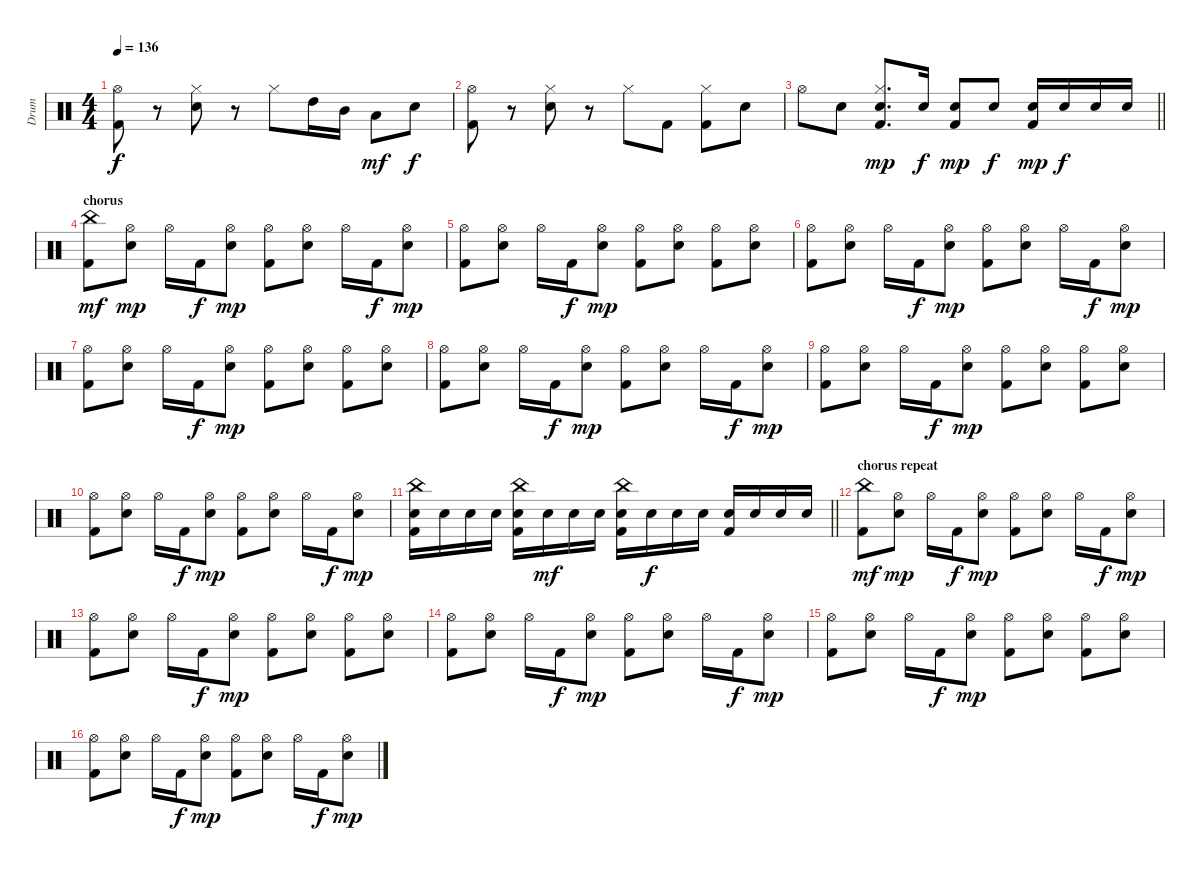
\track ("Drum" "Drum") {instrument percussion}
\staff {score}
\articulation defaults
\ts (4 4)
\tempo 136
\clef neutral
\ks c
("Kick (hit) 2" "Hi-Hat (open)").8{dy f} r.8 ("Hi-Hat (closed)" "Electric Snare (hit)").8 r.8 "Hi-Hat (closed)".8 "High Tom (hit)".16 "Mid Tom (hit)".16 "Low Tom (hit)".8{dy mf} "Electric Snare (hit)".8{dy f} |
("Kick (hit) 2" "Hi-Hat (open)").8 r.8 ("Hi-Hat (closed)" "Electric Snare (hit)").8 r.8 "Hi-Hat (closed)".8 "Kick (hit) 2".8 ("Kick (hit) 2" "Hi-Hat (closed)").8 "Electric Snare (hit)".8 |
\barLineRight lightlight "Hi-Hat (open)".8 "Electric Snare (hit)".8
("Electric Snare (hit)" "Hi-Hat (closed)" "Kick (hit) 2").8{d dy mp} "Electric Snare (hit)".16{dy f} ("Electric Snare (hit)" "Kick (hit) 2").8{dy mp} "Electric Snare (hit)".8{dy f} ("Electric Snare (hit)" "Kick (hit) 2").16{dy mp} "Electric Snare (hit)".16{dy f} "Electric Snare (hit)".16 "Electric Snare (hit)".16 |
\section ("" "chorus")
("Kick (hit) 2" "China (hit)").8{dy mf} ("Electric Snare (hit)" "Hi-Hat (open)").8{dy mp} "Hi-Hat (open)".16 "Kick (hit) 2".16{dy f} ("Electric Snare (hit)" "Hi-Hat (open)").8{dy mp} ("Kick (hit) 2" "Hi-Hat (open)").8 ("Electric Snare (hit)" "Hi-Hat (open)").8 "Hi-Hat (open)".16 "Kick (hit) 2".16{dy f} ("Electric Snare (hit)" "Hi-Hat (open)").8{dy mp} |
("Kick (hit) 2" "Hi-Hat (open)").8 ("Electric Snare (hit)" "Hi-Hat (open)").8 "Hi-Hat (open)".16 "Kick (hit) 2".16{dy f} ("Electric Snare (hit)" "Hi-Hat (open)").8{dy mp} ("Kick (hit) 2" "Hi-Hat (open)").8 ("Electric Snare (hit)" "Hi-Hat (open)").8 ("Kick (hit) 2" "Hi-Hat (open)").8 ("Electric Snare (hit)" "Hi-Hat (open)").8 |
("Kick (hit) 2" "Hi-Hat (open)").8 ("Electric Snare (hit)" "Hi-Hat (open)").8 "Hi-Hat (open)".16 "Kick (hit) 2".16{dy f} ("Electric Snare (hit)" "Hi-Hat (open)").8{dy mp} ("Kick (hit) 2" "Hi-Hat (open)").8 ("Electric Snare (hit)" "Hi-Hat (open)").8 "Hi-Hat (open)".16 "Kick (hit) 2".16{dy f} ("Electric Snare (hit)" "Hi-Hat (open)").8{dy mp} |
("Kick (hit) 2" "Hi-Hat (open)").8 ("Electric Snare (hit)" "Hi-Hat (open)").8 "Hi-Hat (open)".16 "Kick (hit) 2".16{dy f} ("Electric Snare (hit)" "Hi-Hat (open)").8{dy mp} ("Kick (hit) 2" "Hi-Hat (open)").8 ("Electric Snare (hit)" "Hi-Hat (open)").8 ("Kick (hit) 2" "Hi-Hat (open)").8 ("Electric Snare (hit)" "Hi-Hat (open)").8 |
("Kick (hit) 2" "Hi-Hat (open)").8 ("Electric Snare (hit)" "Hi-Hat (open)").8 "Hi-Hat (open)".16 "Kick (hit) 2".16{dy f} ("Electric Snare (hit)" "Hi-Hat (open)").8{dy mp} ("Kick (hit) 2" "Hi-Hat (open)").8 ("Electric Snare (hit)" "Hi-Hat (open)").8 "Hi-Hat (open)".16 "Kick (hit) 2".16{dy f} ("Electric Snare (hit)" "Hi-Hat (open)").8{dy mp} |
("Kick (hit) 2" "Hi-Hat (open)").8 ("Electric Snare (hit)" "Hi-Hat (open)").8 "Hi-Hat (open)".16 "Kick (hit) 2".16{dy f} ("Electric Snare (hit)" "Hi-Hat (open)").8{dy mp} ("Kick (hit) 2" "Hi-Hat (open)").8 ("Electric Snare (hit)" "Hi-Hat (open)").8 ("Kick (hit) 2" "Hi-Hat (open)").8 ("Electric Snare (hit)" "Hi-Hat (open)").8 |
("Kick (hit) 2" "Hi-Hat (open)").8 ("Electric Snare (hit)" "Hi-Hat (open)").8 "Hi-Hat (open)".16 "Kick (hit) 2".16{dy f} ("Electric Snare (hit)" "Hi-Hat (open)").8{dy mp} ("Kick (hit) 2" "Hi-Hat (open)").8 ("Electric Snare (hit)" "Hi-Hat (open)").8 "Hi-Hat (open)".16 "Kick (hit) 2".16{dy f} ("Electric Snare (hit)" "Hi-Hat (open)").8{dy mp} |
\barLineRight lightlight
("Electric Snare (hit)" "Kick (hit) 2" "China (hit)").16 "Electric Snare (hit)".16 "Electric Snare (hit)".16 "Electric Snare (hit)".16 ("Electric Snare (hit)" "Kick (hit) 2" "China (hit)").16 "Electric Snare (hit)".16{dy mf} "Electric Snare (hit)".16 "Electric Snare (hit)".16 ("Electric Snare (hit)" "Kick (hit) 2" "China (hit)").16 "Electric Snare (hit)".16{dy f} "Electric Snare (hit)".16 "Electric Snare (hit)".16 ("Electric Snare (hit)" "Kick (hit) 2").16 "Electric Snare (hit)".16 "Electric Snare (hit)".16 "Electric Snare (hit)".16 |
\section ("" "chorus repeat")
("Kick (hit) 2" "China (hit)").8{dy mf} ("Electric Snare (hit)" "Hi-Hat (open)").8{dy mp} "Hi-Hat (open)".16 "Kick (hit) 2".16{dy f} ("Electric Snare (hit)" "Hi-Hat (open)").8{dy mp} ("Kick (hit) 2" "Hi-Hat (open)").8 ("Electric Snare (hit)" "Hi-Hat (open)").8 "Hi-Hat (open)".16 "Kick (hit) 2".16{dy f} ("Electric Snare (hit)" "Hi-Hat (open)").8{dy mp} |
("Kick (hit) 2" "Hi-Hat (open)").8 ("Electric Snare (hit)" "Hi-Hat (open)").8 "Hi-Hat (open)".16 "Kick (hit) 2".16{dy f} ("Electric Snare (hit)" "Hi-Hat (open)").8{dy mp} ("Kick (hit) 2" "Hi-Hat (open)").8 ("Electric Snare (hit)" "Hi-Hat (open)").8 ("Kick (hit) 2" "Hi-Hat (open)").8 ("Electric Snare (hit)" "Hi-Hat (open)").8 |
("Kick (hit) 2" "Hi-Hat (open)").8 ("Electric Snare (hit)" "Hi-Hat (open)").8 "Hi-Hat (open)".16 "Kick (hit) 2".16{dy f} ("Electric Snare (hit)" "Hi-Hat (open)").8{dy mp} ("Kick (hit) 2" "Hi-Hat (open)").8 ("Electric Snare (hit)" "Hi-Hat (open)").8 "Hi-Hat (open)".16 "Kick (hit) 2".16{dy f} ("Electric Snare (hit)" "Hi-Hat (open)").8{dy mp} |
("Kick (hit) 2" "Hi-Hat (open)").8 ("Electric Snare (hit)" "Hi-Hat (open)").8 "Hi-Hat (open)".16 "Kick (hit) 2".16{dy f} ("Electric Snare (hit)" "Hi-Hat (open)").8{dy mp} ("Kick (hit) 2" "Hi-Hat (open)").8 ("Electric Snare (hit)" "Hi-Hat (open)").8 ("Kick (hit) 2" "Hi-Hat (open)").8 ("Electric Snare (hit)" "Hi-Hat (open)").8 |
("Kick (hit) 2" "Hi-Hat (open)").8 ("Electric Snare (hit)" "Hi-Hat (open)").8 "Hi-Hat (open)".16 "Kick (hit) 2".16{dy f} ("Electric Snare (hit)" "Hi-Hat (open)").8{dy mp} ("Kick (hit) 2" "Hi-Hat (open)").8 ("Electric Snare (hit)" "Hi-Hat (open)").8 "Hi-Hat (open)".16 "Kick (hit) 2".16{dy f} ("Electric Snare (hit)" "Hi-Hat (open)").8{dy mp}
